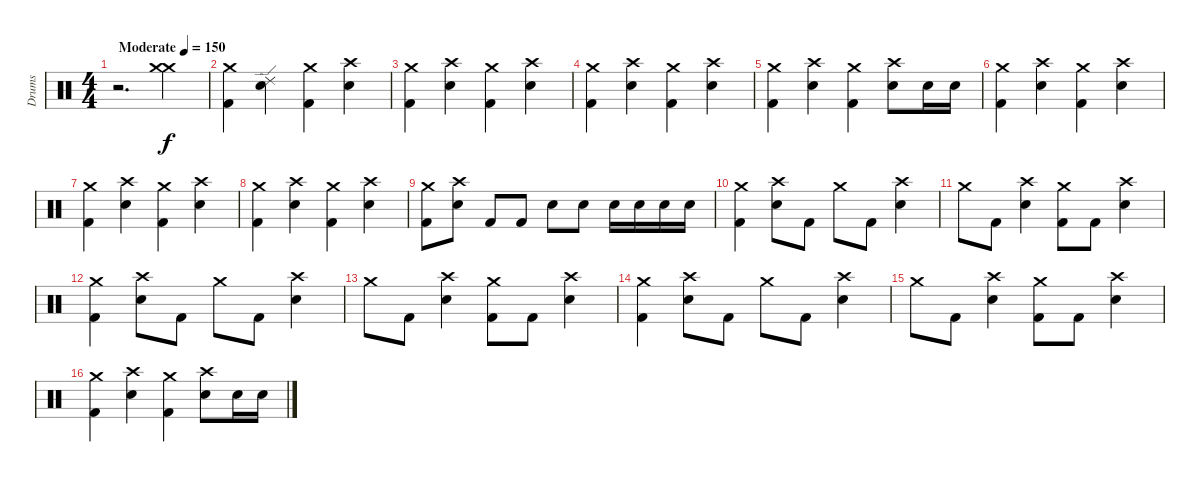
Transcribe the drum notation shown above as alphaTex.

\track ("Drums" "Drums") {instrument percussion}
\staff {score}
\articulation defaults
\ts (4 4)
\tempo (150 "Moderate")
\clef neutral
\ks c
r.2{d dy f volume 0} ("Crash medium (hit)" "Crash medium (hit)").4{volume 13} |
("Crash medium (hit)" "Kick (hit) 2").4 ("Ride (edge) 2" "Snare (hit) 2").4 ("Crash medium (hit)" "Kick (hit) 2").4 ("Crash high (hit)" "Snare (hit) 2").4 |
("Crash medium (hit)" "Kick (hit) 2").4 ("Crash high (hit)" "Snare (hit) 2").4 ("Crash medium (hit)" "Kick (hit) 2").4 ("Crash high (hit)" "Snare (hit) 2").4 |
("Crash medium (hit)" "Kick (hit) 2").4 ("Crash high (hit)" "Snare (hit) 2").4 ("Crash medium (hit)" "Kick (hit) 2").4 ("Crash high (hit)" "Snare (hit) 2").4 |
("Crash medium (hit)" "Kick (hit) 2").4 ("Crash high (hit)" "Snare (hit) 2").4 ("Crash medium (hit)" "Kick (hit) 2").4 ("Crash high (hit)" "Snare (hit) 2").8 "Snare (hit) 2".16 "Snare (hit) 2".16 |
("Crash medium (hit)" "Kick (hit) 2").4 ("Crash high (hit)" "Snare (hit) 2").4 ("Crash medium (hit)" "Kick (hit) 2").4 ("Crash high (hit)" "Snare (hit) 2").4 |
("Crash medium (hit)" "Kick (hit) 2").4 ("Crash high (hit)" "Snare (hit) 2").4 ("Crash medium (hit)" "Kick (hit) 2").4 ("Crash high (hit)" "Snare (hit) 2").4 |
("Crash medium (hit)" "Kick (hit) 2").4 ("Crash high (hit)" "Snare (hit) 2").4 ("Crash medium (hit)" "Kick (hit) 2").4 ("Crash high (hit)" "Snare (hit) 2").4 |
("Crash medium (hit)" "Kick (hit) 2").8 ("Crash high (hit)" "Snare (hit) 2").8 "Kick (hit) 2".8 "Kick (hit) 2".8 "Electric Snare (hit)".8 "Electric Snare (hit)".8 "Snare (hit) 2".16 "Snare (hit) 2".16 "Snare (hit) 2".16 "Snare (hit) 2".16 |
("Crash medium (hit)" "Kick (hit) 2").4 ("Crash high (hit)" "Snare (hit) 2").8 "Kick (hit) 2".8 "Crash medium (hit)".8 "Kick (hit) 2".8 ("Crash high (hit)" "Snare (hit) 2").4 |
"Crash medium (hit)".8 "Kick (hit) 2".8 ("Crash high (hit)" "Snare (hit) 2").4 ("Crash medium (hit)" "Kick (hit) 2").8 "Kick (hit) 2".8 ("Crash high (hit)" "Snare (hit) 2").4 |
("Crash medium (hit)" "Kick (hit) 2").4 ("Crash high (hit)" "Snare (hit) 2").8 "Kick (hit) 2".8 "Crash medium (hit)".8 "Kick (hit) 2".8 ("Crash high (hit)" "Snare (hit) 2").4 |
"Crash medium (hit)".8 "Kick (hit) 2".8 ("Crash high (hit)" "Snare (hit) 2").4 ("Crash medium (hit)" "Kick (hit) 2").8 "Kick (hit) 2".8 ("Crash high (hit)" "Snare (hit) 2").4 |
("Crash medium (hit)" "Kick (hit) 2").4 ("Crash high (hit)" "Snare (hit) 2").8 "Kick (hit) 2".8 "Crash medium (hit)".8 "Kick (hit) 2".8 ("Crash high (hit)" "Snare (hit) 2").4 |
"Crash medium (hit)".8 "Kick (hit) 2".8 ("Crash high (hit)" "Snare (hit) 2").4 ("Crash medium (hit)" "Kick (hit) 2").8 "Kick (hit) 2".8 ("Crash high (hit)" "Snare (hit) 2").4 |
("Crash medium (hit)" "Kick (hit) 2").4 ("Crash high (hit)" "Snare (hit) 2").4 ("Crash medium (hit)" "Kick (hit) 2").4 ("Crash high (hit)" "Snare (hit) 2").8 "Snare (hit) 2".16 "Snare (hit) 2".16
